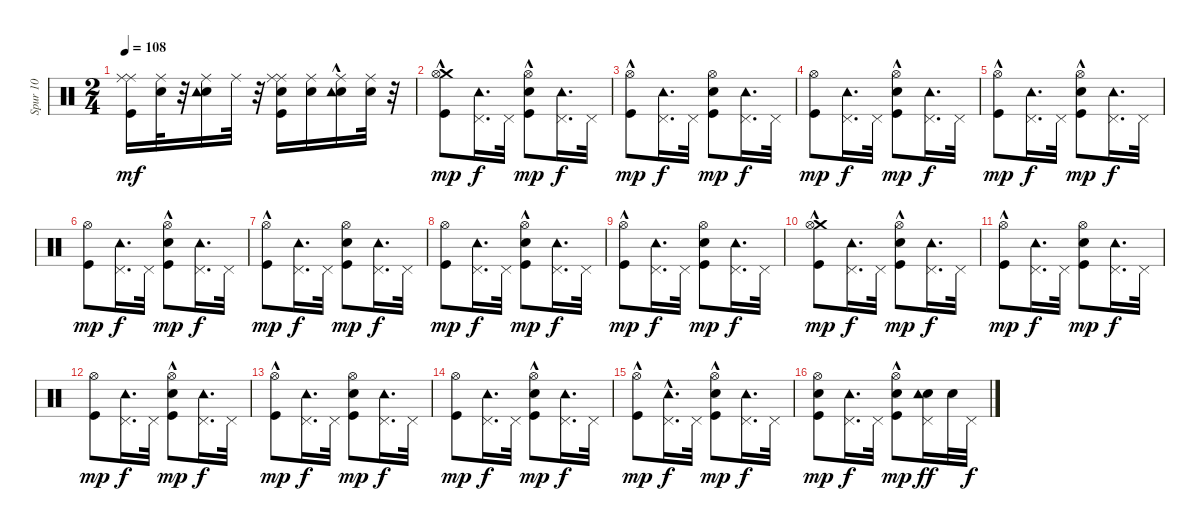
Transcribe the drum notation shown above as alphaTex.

\track ("Spur 10" "Spur 10") {instrument percussion}
\staff {score}
\articulation defaults
\ts (2 4)
\tempo 108
\clef neutral
\ks c
("Ride (middle)" "Ride (middle)" "Kick (hit)").16{dy mf} ("Electric Snare (hit)" "Ride (middle)").32 r.32 ("Electric Snare (hit)" "Ride (middle)" "Tambourine (hit)").16 "Ride (middle)".32 r.32 ("Electric Snare (hit)" "Ride (middle)" "Ride (middle)" "Kick (hit)").16 ("Electric Snare (hit)" "Ride (middle)").16 ("Electric Snare (hit)" "Ride (middle)" "Tambourine (hit)"{hac}).16 ("Electric Snare (hit)" "Ride (middle)").32 r.32 |
("Crash medium (hit)"{hac} "Hi-Hat (open)" "Kick (hit)").8{dy mp} ("Tambourine (hit)" "Pedal Hi-Hat (hit)").16{d dy f} "Pedal Hi-Hat (hit)".32 ("Electric Snare (hit)"{hac} "Hi-Hat (open)"{hac} "Kick (hit)").8{dy mp} ("Tambourine (hit)" "Pedal Hi-Hat (hit)").16{d dy f} "Pedal Hi-Hat (hit)".32 |
("Hi-Hat (open)"{hac} "Kick (hit)").8{dy mp} ("Tambourine (hit)" "Pedal Hi-Hat (hit)").16{d dy f} "Pedal Hi-Hat (hit)".32 ("Electric Snare (hit)" "Hi-Hat (open)" "Kick (hit)").8{dy mp} ("Tambourine (hit)" "Pedal Hi-Hat (hit)").16{d dy f} "Pedal Hi-Hat (hit)".32 |
("Hi-Hat (open)" "Kick (hit)").8{dy mp} ("Tambourine (hit)" "Pedal Hi-Hat (hit)").16{d dy f} "Pedal Hi-Hat (hit)".32 ("Electric Snare (hit)" "Hi-Hat (open)"{hac} "Kick (hit)").8{dy mp} ("Tambourine (hit)" "Pedal Hi-Hat (hit)").16{d dy f} "Pedal Hi-Hat (hit)".32 |
("Hi-Hat (open)"{hac} "Kick (hit)").8{dy mp} ("Tambourine (hit)" "Pedal Hi-Hat (hit)").16{d dy f} "Pedal Hi-Hat (hit)".32 ("Electric Snare (hit)"{hac} "Hi-Hat (open)" "Kick (hit)").8{dy mp} ("Tambourine (hit)" "Pedal Hi-Hat (hit)").16{d dy f} "Pedal Hi-Hat (hit)".32 |
("Hi-Hat (open)" "Kick (hit)").8{dy mp} ("Tambourine (hit)" "Pedal Hi-Hat (hit)").16{d dy f} "Pedal Hi-Hat (hit)".32 ("Electric Snare (hit)" "Hi-Hat (open)"{hac} "Kick (hit)").8{dy mp} ("Tambourine (hit)" "Pedal Hi-Hat (hit)").16{d dy f} "Pedal Hi-Hat (hit)".32 |
("Hi-Hat (open)"{hac} "Kick (hit)").8{dy mp} ("Tambourine (hit)" "Pedal Hi-Hat (hit)").16{d dy f} "Pedal Hi-Hat (hit)".32 ("Electric Snare (hit)" "Hi-Hat (open)" "Kick (hit)").8{dy mp} ("Tambourine (hit)" "Pedal Hi-Hat (hit)").16{d dy f} "Pedal Hi-Hat (hit)".32 |
("Hi-Hat (open)" "Kick (hit)").8{dy mp} ("Tambourine (hit)" "Pedal Hi-Hat (hit)").16{d dy f} "Pedal Hi-Hat (hit)".32 ("Electric Snare (hit)"{hac} "Hi-Hat (open)"{hac} "Kick (hit)").8{dy mp} ("Tambourine (hit)" "Pedal Hi-Hat (hit)").16{d dy f} "Pedal Hi-Hat (hit)".32 |
("Hi-Hat (open)"{hac} "Kick (hit)").8{dy mp} ("Tambourine (hit)" "Pedal Hi-Hat (hit)").16{d dy f} "Pedal Hi-Hat (hit)".32 ("Electric Snare (hit)" "Hi-Hat (open)" "Kick (hit)").8{dy mp} ("Tambourine (hit)" "Pedal Hi-Hat (hit)").16{d dy f} "Pedal Hi-Hat (hit)".32 |
("Crash medium (hit)"{hac} "Hi-Hat (open)" "Kick (hit)").8{dy mp} ("Tambourine (hit)" "Pedal Hi-Hat (hit)").16{d dy f} "Pedal Hi-Hat (hit)".32 ("Electric Snare (hit)" "Hi-Hat (open)"{hac} "Kick (hit)").8{dy mp} ("Tambourine (hit)" "Pedal Hi-Hat (hit)").16{d dy f} "Pedal Hi-Hat (hit)".32 |
("Hi-Hat (open)"{hac} "Kick (hit)").8{dy mp} ("Tambourine (hit)" "Pedal Hi-Hat (hit)").16{d dy f} "Pedal Hi-Hat (hit)".32 ("Electric Snare (hit)" "Hi-Hat (open)" "Kick (hit)").8{dy mp} ("Tambourine (hit)" "Pedal Hi-Hat (hit)").16{d dy f} "Pedal Hi-Hat (hit)".32 |
("Hi-Hat (open)" "Kick (hit)").8{dy mp} ("Tambourine (hit)" "Pedal Hi-Hat (hit)").16{d dy f} "Pedal Hi-Hat (hit)".32 ("Electric Snare (hit)" "Hi-Hat (open)"{hac} "Kick (hit)").8{dy mp} ("Tambourine (hit)" "Pedal Hi-Hat (hit)").16{d dy f} "Pedal Hi-Hat (hit)".32 |
("Hi-Hat (open)"{hac} "Kick (hit)").8{dy mp} ("Tambourine (hit)" "Pedal Hi-Hat (hit)").16{d dy f} "Pedal Hi-Hat (hit)".32 ("Electric Snare (hit)" "Hi-Hat (open)" "Kick (hit)").8{dy mp} ("Tambourine (hit)" "Pedal Hi-Hat (hit)").16{d dy f} "Pedal Hi-Hat (hit)".32 |
("Hi-Hat (open)" "Kick (hit)").8{dy mp} ("Tambourine (hit)" "Pedal Hi-Hat (hit)").16{d dy f} "Pedal Hi-Hat (hit)".32 ("Electric Snare (hit)"{hac} "Hi-Hat (open)"{hac} "Kick (hit)").8{dy mp} ("Tambourine (hit)" "Pedal Hi-Hat (hit)").16{d dy f} "Pedal Hi-Hat (hit)".32 |
("Hi-Hat (open)"{hac} "Kick (hit)").8{dy mp} ("Tambourine (hit)"{hac} "Pedal Hi-Hat (hit)").16{d dy f} "Pedal Hi-Hat (hit)".32 ("Electric Snare (hit)"{hac} "Hi-Hat (open)" "Kick (hit)").8{dy mp} ("Tambourine (hit)" "Pedal Hi-Hat (hit)").16{d dy f} "Pedal Hi-Hat (hit)".32 |
("Electric Snare (hit)" "Hi-Hat (open)" "Kick (hit)").8{dy mp} ("Tambourine (hit)" "Pedal Hi-Hat (hit)").16{d dy f} "Pedal Hi-Hat (hit)".32 ("Electric Snare (hit)" "Hi-Hat (open)"{hac} "Kick (hit)").8{dy mp} ("Electric Snare (hit)" "Tambourine (hit)" "Pedal Hi-Hat (hit)").16{dy ff} "Electric Snare (hit)".32 "Pedal Hi-Hat (hit)".32{dy f}
